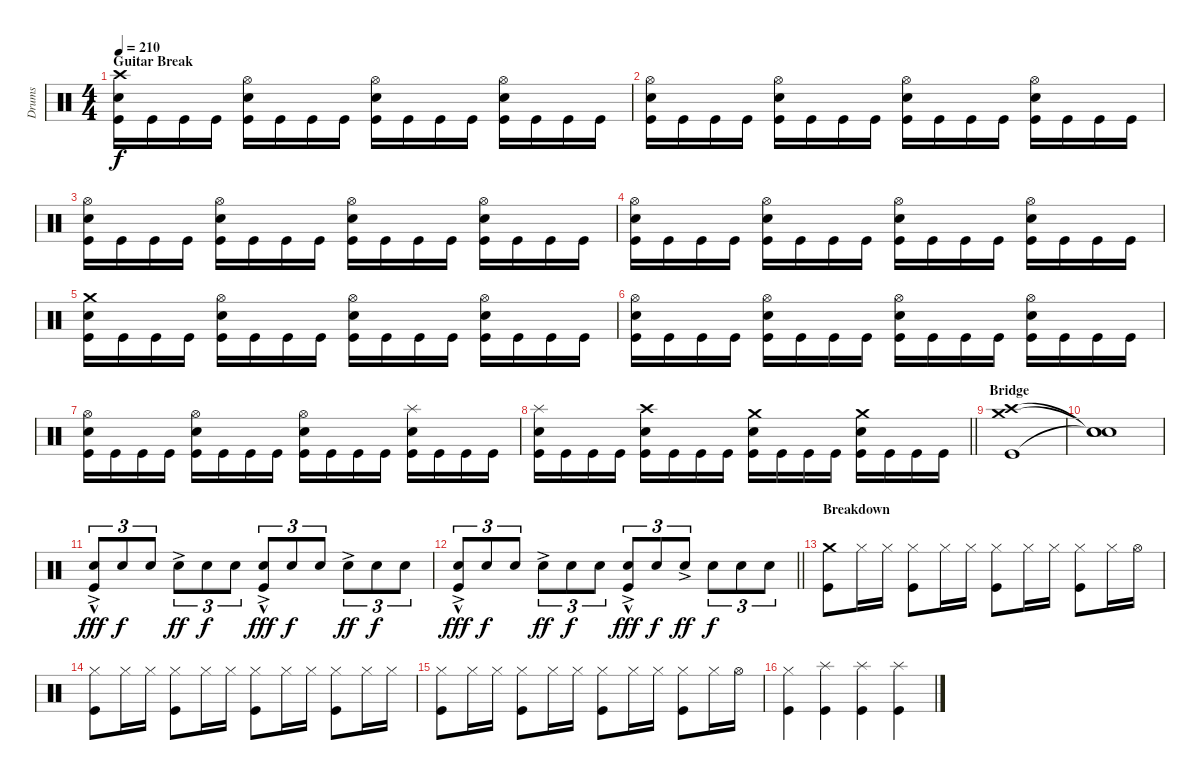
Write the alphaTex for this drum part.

\track ("Drums" "Drums") {instrument percussion}
\staff {score}
\articulation defaults
\ts (4 4)
\section ("" "Guitar Break")
\tempo 210
\clef neutral
\ks c
("Crash high (hit)" "Electric Snare (hit)" "Kick (hit)").16{dy f} "Kick (hit)".16 "Kick (hit)".16 "Kick (hit)".16 ("Hi-Hat (open)" "Electric Snare (hit)" "Kick (hit)").16 "Kick (hit)".16 "Kick (hit)".16 "Kick (hit)".16 ("Hi-Hat (open)" "Electric Snare (hit)" "Kick (hit)").16 "Kick (hit)".16 "Kick (hit)".16 "Kick (hit)".16 ("Hi-Hat (open)" "Electric Snare (hit)" "Kick (hit)").16 "Kick (hit)".16 "Kick (hit)".16 "Kick (hit)".16 |
("Hi-Hat (open)" "Electric Snare (hit)" "Kick (hit)").16 "Kick (hit)".16 "Kick (hit)".16 "Kick (hit)".16 ("Hi-Hat (open)" "Electric Snare (hit)" "Kick (hit)").16 "Kick (hit)".16 "Kick (hit)".16 "Kick (hit)".16 ("Hi-Hat (open)" "Electric Snare (hit)" "Kick (hit)").16 "Kick (hit)".16 "Kick (hit)".16 "Kick (hit)".16 ("Hi-Hat (open)" "Electric Snare (hit)" "Kick (hit)").16 "Kick (hit)".16 "Kick (hit)".16 "Kick (hit)".16 |
("Hi-Hat (open)" "Electric Snare (hit)" "Kick (hit)").16 "Kick (hit)".16 "Kick (hit)".16 "Kick (hit)".16 ("Hi-Hat (open)" "Electric Snare (hit)" "Kick (hit)").16 "Kick (hit)".16 "Kick (hit)".16 "Kick (hit)".16 ("Hi-Hat (open)" "Electric Snare (hit)" "Kick (hit)").16 "Kick (hit)".16 "Kick (hit)".16 "Kick (hit)".16 ("Hi-Hat (open)" "Electric Snare (hit)" "Kick (hit)").16 "Kick (hit)".16 "Kick (hit)".16 "Kick (hit)".16 |
("Hi-Hat (open)" "Electric Snare (hit)" "Kick (hit)").16 "Kick (hit)".16 "Kick (hit)".16 "Kick (hit)".16 ("Hi-Hat (open)" "Electric Snare (hit)" "Kick (hit)").16 "Kick (hit)".16 "Kick (hit)".16 "Kick (hit)".16 ("Hi-Hat (open)" "Electric Snare (hit)" "Kick (hit)").16 "Kick (hit)".16 "Kick (hit)".16 "Kick (hit)".16 ("Hi-Hat (open)" "Electric Snare (hit)" "Kick (hit)").16 "Kick (hit)".16 "Kick (hit)".16 "Kick (hit)".16 |
("Crash medium (hit)" "Electric Snare (hit)" "Kick (hit)").16 "Kick (hit)".16 "Kick (hit)".16 "Kick (hit)".16 ("Hi-Hat (open)" "Electric Snare (hit)" "Kick (hit)").16 "Kick (hit)".16 "Kick (hit)".16 "Kick (hit)".16 ("Hi-Hat (open)" "Electric Snare (hit)" "Kick (hit)").16 "Kick (hit)".16 "Kick (hit)".16 "Kick (hit)".16 ("Hi-Hat (open)" "Electric Snare (hit)" "Kick (hit)").16 "Kick (hit)".16 "Kick (hit)".16 "Kick (hit)".16 |
("Hi-Hat (open)" "Electric Snare (hit)" "Kick (hit)").16 "Kick (hit)".16 "Kick (hit)".16 "Kick (hit)".16 ("Hi-Hat (open)" "Electric Snare (hit)" "Kick (hit)").16 "Kick (hit)".16 "Kick (hit)".16 "Kick (hit)".16 ("Hi-Hat (open)" "Electric Snare (hit)" "Kick (hit)").16 "Kick (hit)".16 "Kick (hit)".16 "Kick (hit)".16 ("Hi-Hat (open)" "Electric Snare (hit)" "Kick (hit)").16 "Kick (hit)".16 "Kick (hit)".16 "Kick (hit)".16 |
("Hi-Hat (open)" "Electric Snare (hit)" "Kick (hit)").16 "Kick (hit)".16 "Kick (hit)".16 "Kick (hit)".16 ("Hi-Hat (open)" "Electric Snare (hit)" "Kick (hit)").16 "Kick (hit)".16 "Kick (hit)".16 "Kick (hit)".16 ("Hi-Hat (open)" "Electric Snare (hit)" "Kick (hit)").16 "Kick (hit)".16 "Kick (hit)".16 "Kick (hit)".16 ("Splash (hit)" "Electric Snare (hit)" "Kick (hit)").16 "Kick (hit)".16 "Kick (hit)".16 "Kick (hit)".16 |
\barLineRight lightlight
("Splash (hit)" "Electric Snare (hit)" "Kick (hit)").16 "Kick (hit)".16 "Kick (hit)".16 "Kick (hit)".16 ("Crash high (hit)" "Electric Snare (hit)" "Kick (hit)").16 "Kick (hit)".16 "Kick (hit)".16 "Kick (hit)".16 ("Crash medium (hit)" "Electric Snare (hit)" "Kick (hit)").16 "Kick (hit)".16 "Kick (hit)".16 "Kick (hit)".16 ("Crash medium (hit)" "Electric Snare (hit)" "Kick (hit)").16 "Kick (hit)".16 "Kick (hit)".16 "Kick (hit)".16 |
\section ("" "Bridge")
("Crash medium (hit)" "Crash high (hit)" "Kick (hit)").1 |
("Snare (hit)"{t} "Snare (hit)"{t} "Snare (hit)"{t}).1 |
("Snare (hit) 2"{ac} "Kick (hit)"{hac}).8{tu (3 2) dy fff} "Snare (hit) 2".8{tu (3 2) dy f} "Snare (hit) 2".8{tu (3 2)} "Snare (hit) 2"{ac}.8{tu (3 2) dy ff} "Snare (hit) 2".8{tu (3 2) dy f} "Snare (hit) 2".8{tu (3 2)} ("Snare (hit) 2"{ac} "Kick (hit)"{hac}).8{tu (3 2) dy fff} "Snare (hit) 2".8{tu (3 2) dy f} "Snare (hit) 2".8{tu (3 2)} "Snare (hit) 2"{ac}.8{tu (3 2) dy ff} "Snare (hit) 2".8{tu (3 2) dy f} "Snare (hit) 2".8{tu (3 2)} |
\barLineRight lightlight
("Snare (hit) 2"{ac} "Kick (hit)"{hac}).8{tu (3 2) dy fff} "Snare (hit) 2".8{tu (3 2) dy f} "Snare (hit) 2".8{tu (3 2)} "Snare (hit) 2"{ac}.8{tu (3 2) dy ff} "Snare (hit) 2".8{tu (3 2) dy f} "Snare (hit) 2".8{tu (3 2)} ("Snare (hit) 2"{ac} "Kick (hit)"{hac}).8{tu (3 2) dy fff} "Snare (hit) 2".8{tu (3 2) dy f} "Snare (hit) 2"{ac}.8{tu (3 2) dy ff} "Snare (hit) 2".8{tu (3 2) dy f} "Snare (hit) 2".8{tu (3 2)} "Snare (hit) 2".8{tu (3 2)} |
\section ("" "Breakdown")
("Crash medium (hit)" "Kick (hit)").8 "Hi-Hat (closed)".16 "Hi-Hat (closed)".16 ("Hi-Hat (closed)" "Kick (hit)").8 "Hi-Hat (closed)".16 "Hi-Hat (closed)".16 ("Hi-Hat (closed)" "Kick (hit)").8 "Hi-Hat (closed)".16 "Hi-Hat (closed)".16 ("Hi-Hat (closed)" "Kick (hit)").8 "Hi-Hat (closed)".16 "Hi-Hat (open)".16 |
("Hi-Hat (closed)" "Kick (hit)").8 "Hi-Hat (closed)".16 "Hi-Hat (closed)".16 ("Hi-Hat (closed)" "Kick (hit)").8 "Hi-Hat (closed)".16 "Hi-Hat (closed)".16 ("Hi-Hat (closed)" "Kick (hit)").8 "Hi-Hat (closed)".16 "Hi-Hat (closed)".16 ("Hi-Hat (closed)" "Kick (hit)").8 "Hi-Hat (closed)".16 "Hi-Hat (closed)".16 |
("Hi-Hat (closed)" "Kick (hit)").8 "Hi-Hat (closed)".16 "Hi-Hat (closed)".16 ("Hi-Hat (closed)" "Kick (hit)").8 "Hi-Hat (closed)".16 "Hi-Hat (closed)".16 ("Hi-Hat (closed)" "Kick (hit)").8 "Hi-Hat (closed)".16 "Hi-Hat (closed)".16 ("Hi-Hat (closed)" "Kick (hit)").8 "Hi-Hat (closed)".16 "Hi-Hat (open)".16 |
("Hi-Hat (closed)" "Kick (hit)").4 ("Splash (hit)" "Kick (hit)").4 ("Splash (hit)" "Kick (hit)").4 ("Splash (hit)" "Kick (hit)").4
